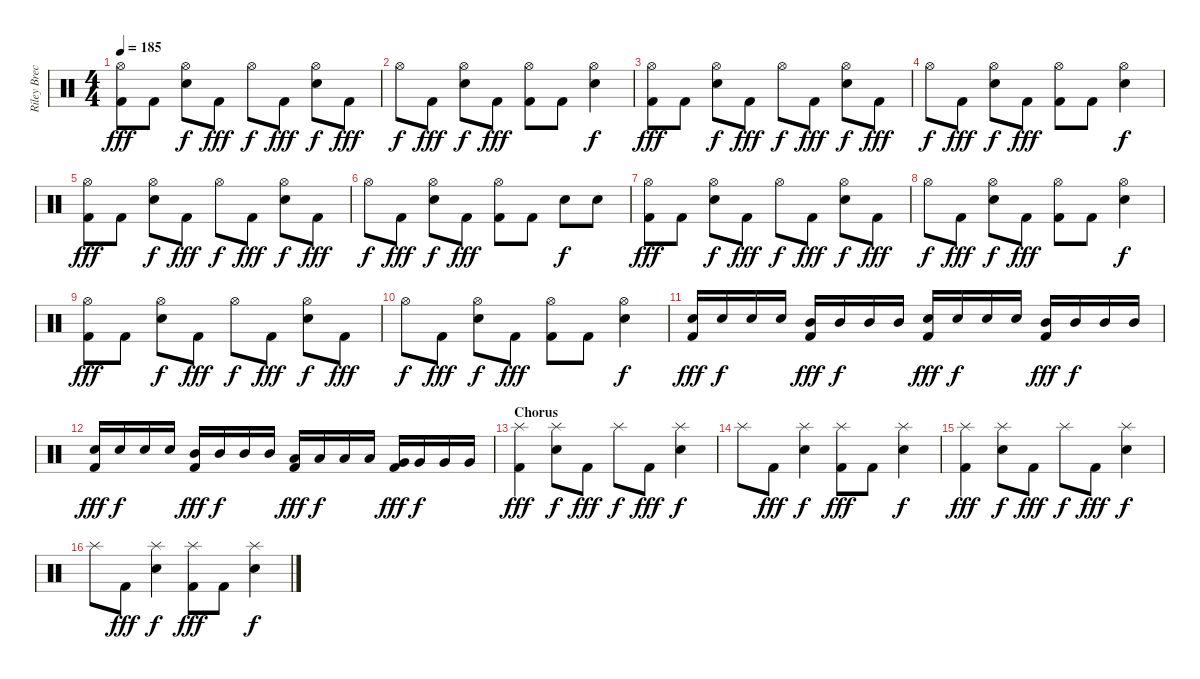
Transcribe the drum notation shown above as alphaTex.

\track ("Riley Breckenridge (Drums)" "Riley Brec") {instrument percussion}
\staff {score}
\articulation defaults
\ts (4 4)
\tempo 185
\clef neutral
\ks c
("Hi-Hat (open)" "Kick (hit) 2").8{dy fff} "Kick (hit) 2".8 ("Hi-Hat (open)" "Electric Snare (hit)").8{dy f} "Kick (hit) 2".8{dy fff} "Hi-Hat (open)".8{dy f} "Kick (hit) 2".8{dy fff} ("Hi-Hat (open)" "Electric Snare (hit)").8{dy f} "Kick (hit) 2".8{dy fff} |
"Hi-Hat (open)".8{dy f} "Kick (hit) 2".8{dy fff} ("Hi-Hat (open)" "Electric Snare (hit)").8{dy f} "Kick (hit) 2".8{dy fff} ("Hi-Hat (open)" "Kick (hit) 2").8 "Kick (hit) 2".8 ("Hi-Hat (open)" "Electric Snare (hit)").4{dy f} |
("Hi-Hat (open)" "Kick (hit) 2").8{dy fff} "Kick (hit) 2".8 ("Hi-Hat (open)" "Electric Snare (hit)").8{dy f} "Kick (hit) 2".8{dy fff} "Hi-Hat (open)".8{dy f} "Kick (hit) 2".8{dy fff} ("Hi-Hat (open)" "Electric Snare (hit)").8{dy f} "Kick (hit) 2".8{dy fff} |
"Hi-Hat (open)".8{dy f} "Kick (hit) 2".8{dy fff} ("Hi-Hat (open)" "Electric Snare (hit)").8{dy f} "Kick (hit) 2".8{dy fff} ("Hi-Hat (open)" "Kick (hit) 2").8 "Kick (hit) 2".8 ("Hi-Hat (open)" "Electric Snare (hit)").4{dy f} |
("Hi-Hat (open)" "Kick (hit) 2").8{dy fff} "Kick (hit) 2".8 ("Hi-Hat (open)" "Electric Snare (hit)").8{dy f} "Kick (hit) 2".8{dy fff} "Hi-Hat (open)".8{dy f} "Kick (hit) 2".8{dy fff} ("Hi-Hat (open)" "Electric Snare (hit)").8{dy f} "Kick (hit) 2".8{dy fff} |
"Hi-Hat (open)".8{dy f} "Kick (hit) 2".8{dy fff} ("Hi-Hat (open)" "Electric Snare (hit)").8{dy f} "Kick (hit) 2".8{dy fff} ("Hi-Hat (open)" "Kick (hit) 2").8 "Kick (hit) 2".8 "Electric Snare (hit)".8{dy f} "Electric Snare (hit)".8 |
("Hi-Hat (open)" "Kick (hit) 2").8{dy fff} "Kick (hit) 2".8 ("Hi-Hat (open)" "Electric Snare (hit)").8{dy f} "Kick (hit) 2".8{dy fff} "Hi-Hat (open)".8{dy f} "Kick (hit) 2".8{dy fff} ("Hi-Hat (open)" "Electric Snare (hit)").8{dy f} "Kick (hit) 2".8{dy fff} |
"Hi-Hat (open)".8{dy f} "Kick (hit) 2".8{dy fff} ("Hi-Hat (open)" "Electric Snare (hit)").8{dy f} "Kick (hit) 2".8{dy fff} ("Hi-Hat (open)" "Kick (hit) 2").8 "Kick (hit) 2".8 ("Hi-Hat (open)" "Electric Snare (hit)").4{dy f} |
("Hi-Hat (open)" "Kick (hit) 2").8{dy fff} "Kick (hit) 2".8 ("Hi-Hat (open)" "Electric Snare (hit)").8{dy f} "Kick (hit) 2".8{dy fff} "Hi-Hat (open)".8{dy f} "Kick (hit) 2".8{dy fff} ("Hi-Hat (open)" "Electric Snare (hit)").8{dy f} "Kick (hit) 2".8{dy fff} |
"Hi-Hat (open)".8{dy f} "Kick (hit) 2".8{dy fff} ("Hi-Hat (open)" "Electric Snare (hit)").8{dy f} "Kick (hit) 2".8{dy fff} ("Hi-Hat (open)" "Kick (hit) 2").8 "Kick (hit) 2".8 ("Hi-Hat (open)" "Electric Snare (hit)").4{dy f} |
("Electric Snare (hit)" "Kick (hit) 2").16{dy fff} "Electric Snare (hit)".16{dy f} "Electric Snare (hit)".16 "Electric Snare (hit)".16 ("Mid Tom (hit)" "Kick (hit) 2").16{dy fff} "Mid Tom (hit)".16{dy f} "Mid Tom (hit)".16 "Mid Tom (hit)".16 ("Electric Snare (hit)" "Kick (hit) 2").16{dy fff} "Electric Snare (hit)".16{dy f} "Electric Snare (hit)".16 "Electric Snare (hit)".16 ("Mid Tom (hit)" "Kick (hit) 2").16{dy fff} "Mid Tom (hit)".16{dy f} "Mid Tom (hit)".16 "Mid Tom (hit)".16 |
("Electric Snare (hit)" "Kick (hit) 2").16{dy fff} "Electric Snare (hit)".16{dy f} "Electric Snare (hit)".16 "Electric Snare (hit)".16 ("Mid Tom (hit)" "Kick (hit) 2").16{dy fff} "Mid Tom (hit)".16{dy f} "Mid Tom (hit)".16 "Mid Tom (hit)".16 ("Low Tom (hit)" "Kick (hit) 2").16{dy fff} "Low Tom (hit)".16{dy f} "Low Tom (hit)".16 "Low Tom (hit)".16 ("Very Low Tom (hit)" "Kick (hit) 2").16{dy fff} "Very Low Tom (hit)".16{dy f} "Very Low Tom (hit)".16 "Very Low Tom (hit)".16 |
\section ("" "Chorus")
("Splash (hit)" "Kick (hit) 2").4{dy fff} ("Splash (hit)" "Electric Snare (hit)").8{dy f} "Kick (hit) 2".8{dy fff} "Splash (hit)".8{dy f} "Kick (hit) 2".8{dy fff} ("Splash (hit)" "Electric Snare (hit)").4{dy f} |
"Splash (hit)".8 "Kick (hit) 2".8{dy fff} ("Splash (hit)" "Electric Snare (hit)").4{dy f} ("Splash (hit)" "Kick (hit) 2").8{dy fff} "Kick (hit) 2".8 ("Splash (hit)" "Electric Snare (hit)").4{dy f} |
("Splash (hit)" "Kick (hit) 2").4{dy fff} ("Splash (hit)" "Electric Snare (hit)").8{dy f} "Kick (hit) 2".8{dy fff} "Splash (hit)".8{dy f} "Kick (hit) 2".8{dy fff} ("Splash (hit)" "Electric Snare (hit)").4{dy f} |
"Splash (hit)".8 "Kick (hit) 2".8{dy fff} ("Splash (hit)" "Electric Snare (hit)").4{dy f} ("Splash (hit)" "Kick (hit) 2").8{dy fff} "Kick (hit) 2".8 ("Splash (hit)" "Electric Snare (hit)").4{dy f}
